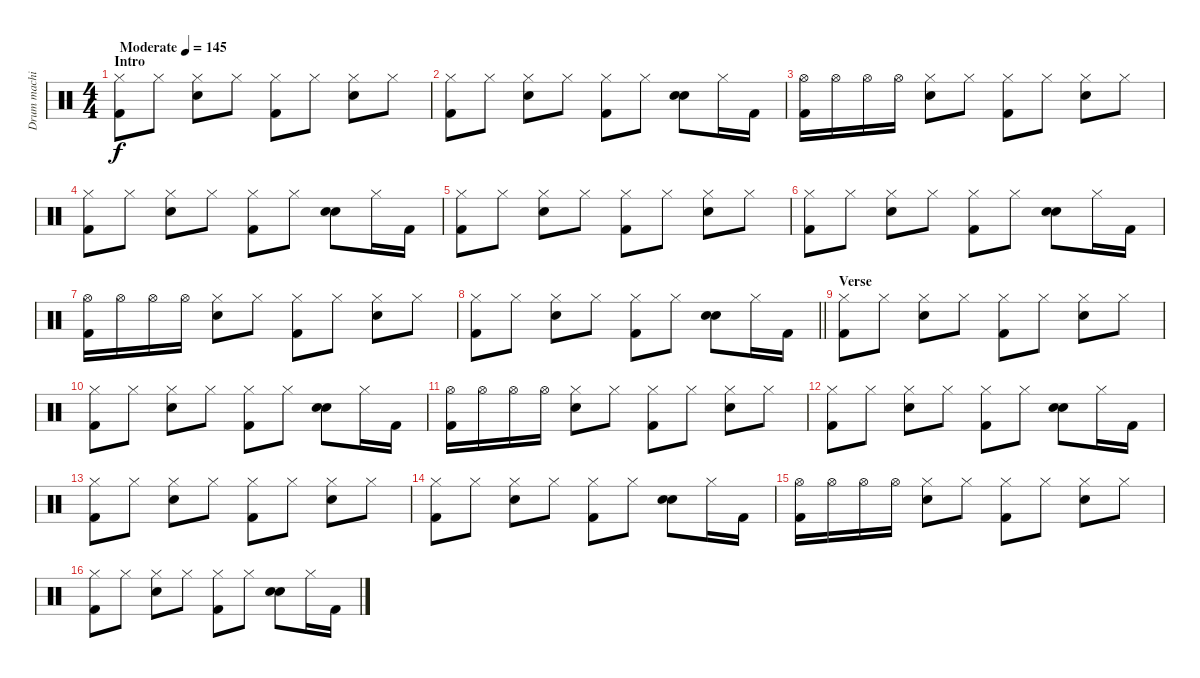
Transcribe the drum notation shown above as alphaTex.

\track ("Drum machine" "Drum machi") {instrument percussion}
\staff {score}
\articulation defaults
\ts (4 4)
\section ("" "Intro")
\tempo (145 "Moderate")
\clef neutral
\ks c
("Hi-Hat (closed)" "Kick (hit) 2").8{dy f} "Hi-Hat (closed)".8 ("Hi-Hat (closed)" "Electric Snare (hit)").8 "Hi-Hat (closed)".8 ("Hi-Hat (closed)" "Kick (hit) 2").8 "Hi-Hat (closed)".8 ("Hi-Hat (closed)" "Electric Snare (hit)").8 "Hi-Hat (closed)".8 |
("Hi-Hat (closed)" "Kick (hit) 2").8 "Hi-Hat (closed)".8 ("Hi-Hat (closed)" "Electric Snare (hit)").8 "Hi-Hat (closed)".8 ("Hi-Hat (closed)" "Kick (hit) 2").8 "Hi-Hat (closed)".8 ("Snare (hit) 2" "Electric Snare (hit)").8 "Hi-Hat (closed)".16 "Kick (hit) 2".16 |
("Hi-Hat (open)" "Kick (hit) 2").16 "Hi-Hat (open)".16 "Hi-Hat (open)".16 "Hi-Hat (open)".16 ("Hi-Hat (closed)" "Electric Snare (hit)").8 "Hi-Hat (closed)".8 ("Hi-Hat (closed)" "Kick (hit) 2").8 "Hi-Hat (closed)".8 ("Hi-Hat (closed)" "Electric Snare (hit)").8 "Hi-Hat (closed)".8 |
("Hi-Hat (closed)" "Kick (hit) 2").8 "Hi-Hat (closed)".8 ("Hi-Hat (closed)" "Electric Snare (hit)").8 "Hi-Hat (closed)".8 ("Hi-Hat (closed)" "Kick (hit) 2").8 "Hi-Hat (closed)".8 ("Snare (hit) 2" "Electric Snare (hit)").8 "Hi-Hat (closed)".16 "Kick (hit) 2".16 |
("Hi-Hat (closed)" "Kick (hit) 2").8 "Hi-Hat (closed)".8 ("Hi-Hat (closed)" "Electric Snare (hit)").8 "Hi-Hat (closed)".8 ("Hi-Hat (closed)" "Kick (hit) 2").8 "Hi-Hat (closed)".8 ("Hi-Hat (closed)" "Electric Snare (hit)").8 "Hi-Hat (closed)".8 |
("Hi-Hat (closed)" "Kick (hit) 2").8 "Hi-Hat (closed)".8 ("Hi-Hat (closed)" "Electric Snare (hit)").8 "Hi-Hat (closed)".8 ("Hi-Hat (closed)" "Kick (hit) 2").8 "Hi-Hat (closed)".8 ("Snare (hit) 2" "Electric Snare (hit)").8 "Hi-Hat (closed)".16 "Kick (hit) 2".16 |
("Hi-Hat (open)" "Kick (hit) 2").16 "Hi-Hat (open)".16 "Hi-Hat (open)".16 "Hi-Hat (open)".16 ("Hi-Hat (closed)" "Electric Snare (hit)").8 "Hi-Hat (closed)".8 ("Hi-Hat (closed)" "Kick (hit) 2").8 "Hi-Hat (closed)".8 ("Hi-Hat (closed)" "Electric Snare (hit)").8 "Hi-Hat (closed)".8 |
\barLineRight lightlight
("Hi-Hat (closed)" "Kick (hit) 2").8 "Hi-Hat (closed)".8 ("Hi-Hat (closed)" "Electric Snare (hit)").8 "Hi-Hat (closed)".8 ("Hi-Hat (closed)" "Kick (hit) 2").8 "Hi-Hat (closed)".8 ("Snare (hit) 2" "Electric Snare (hit)").8 "Hi-Hat (closed)".16 "Kick (hit) 2".16 |
\section ("" "Verse")
("Hi-Hat (closed)" "Kick (hit) 2").8 "Hi-Hat (closed)".8 ("Hi-Hat (closed)" "Electric Snare (hit)").8 "Hi-Hat (closed)".8 ("Hi-Hat (closed)" "Kick (hit) 2").8 "Hi-Hat (closed)".8 ("Hi-Hat (closed)" "Electric Snare (hit)").8 "Hi-Hat (closed)".8 |
("Hi-Hat (closed)" "Kick (hit) 2").8 "Hi-Hat (closed)".8 ("Hi-Hat (closed)" "Electric Snare (hit)").8 "Hi-Hat (closed)".8 ("Hi-Hat (closed)" "Kick (hit) 2").8 "Hi-Hat (closed)".8 ("Snare (hit) 2" "Electric Snare (hit)").8 "Hi-Hat (closed)".16 "Kick (hit) 2".16 |
("Hi-Hat (open)" "Kick (hit) 2").16 "Hi-Hat (open)".16 "Hi-Hat (open)".16 "Hi-Hat (open)".16 ("Hi-Hat (closed)" "Electric Snare (hit)").8 "Hi-Hat (closed)".8 ("Hi-Hat (closed)" "Kick (hit) 2").8 "Hi-Hat (closed)".8 ("Hi-Hat (closed)" "Electric Snare (hit)").8 "Hi-Hat (closed)".8 |
("Hi-Hat (closed)" "Kick (hit) 2").8 "Hi-Hat (closed)".8 ("Hi-Hat (closed)" "Electric Snare (hit)").8 "Hi-Hat (closed)".8 ("Hi-Hat (closed)" "Kick (hit) 2").8 "Hi-Hat (closed)".8 ("Snare (hit) 2" "Electric Snare (hit)").8 "Hi-Hat (closed)".16 "Kick (hit) 2".16 |
("Hi-Hat (closed)" "Kick (hit) 2").8 "Hi-Hat (closed)".8 ("Hi-Hat (closed)" "Electric Snare (hit)").8 "Hi-Hat (closed)".8 ("Hi-Hat (closed)" "Kick (hit) 2").8 "Hi-Hat (closed)".8 ("Hi-Hat (closed)" "Electric Snare (hit)").8 "Hi-Hat (closed)".8 |
("Hi-Hat (closed)" "Kick (hit) 2").8 "Hi-Hat (closed)".8 ("Hi-Hat (closed)" "Electric Snare (hit)").8 "Hi-Hat (closed)".8 ("Hi-Hat (closed)" "Kick (hit) 2").8 "Hi-Hat (closed)".8 ("Snare (hit) 2" "Electric Snare (hit)").8 "Hi-Hat (closed)".16 "Kick (hit) 2".16 |
("Hi-Hat (open)" "Kick (hit) 2").16 "Hi-Hat (open)".16 "Hi-Hat (open)".16 "Hi-Hat (open)".16 ("Hi-Hat (closed)" "Electric Snare (hit)").8 "Hi-Hat (closed)".8 ("Hi-Hat (closed)" "Kick (hit) 2").8 "Hi-Hat (closed)".8 ("Hi-Hat (closed)" "Electric Snare (hit)").8 "Hi-Hat (closed)".8 |
("Hi-Hat (closed)" "Kick (hit) 2").8 "Hi-Hat (closed)".8 ("Hi-Hat (closed)" "Electric Snare (hit)").8 "Hi-Hat (closed)".8 ("Hi-Hat (closed)" "Kick (hit) 2").8 "Hi-Hat (closed)".8 ("Snare (hit) 2" "Electric Snare (hit)").8 "Hi-Hat (closed)".16 "Kick (hit) 2".16
